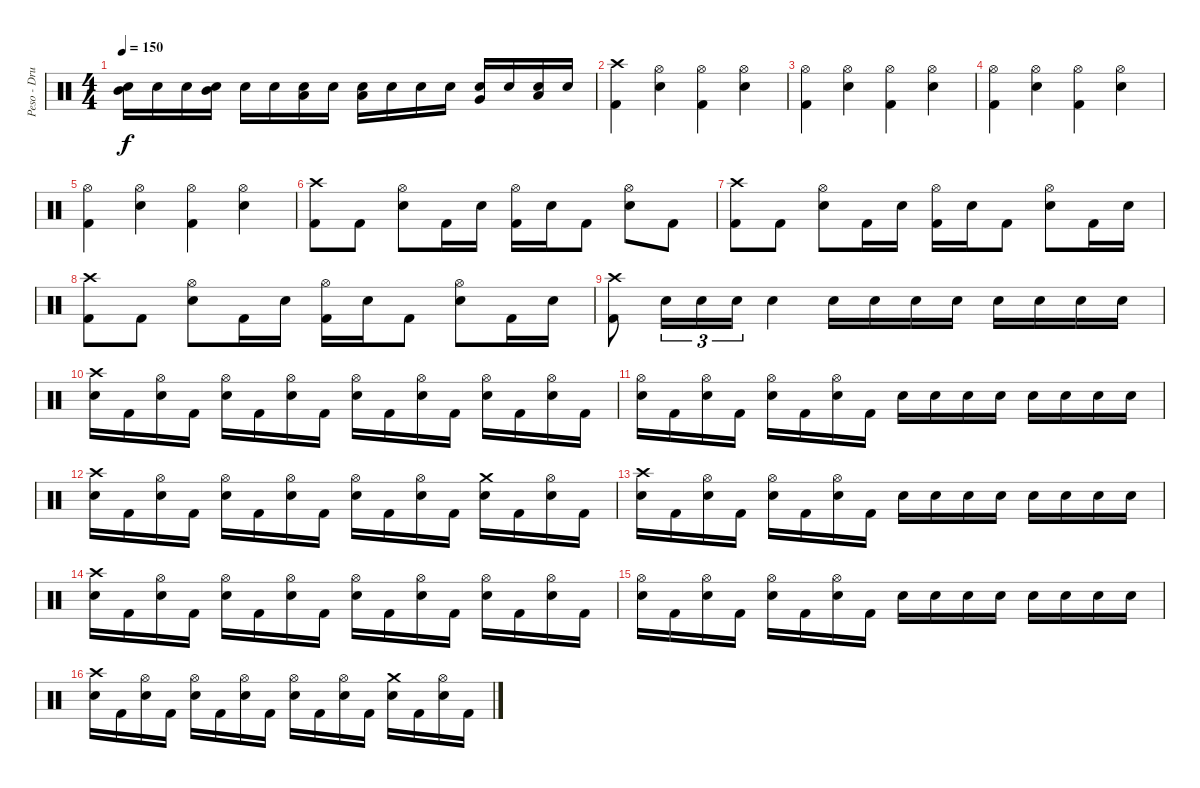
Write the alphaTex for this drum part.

\track ("Peso - Drums" "Peso - Dru") {instrument percussion}
\staff {score}
\articulation defaults
\ts (4 4)
\tempo 150
\clef neutral
\ks c
("Mid Tom (hit)" "Electric Snare (hit)").16{dy f} "Electric Snare (hit)".16 "Electric Snare (hit)".16 ("Mid Tom (hit)" "Electric Snare (hit)").16 "Electric Snare (hit)".16 "Electric Snare (hit)".16 ("Low Tom (hit)" "Electric Snare (hit)").16 "Electric Snare (hit)".16 ("Low Tom (hit)" "Electric Snare (hit)").16 "Electric Snare (hit)".16 "Electric Snare (hit)".16 "Electric Snare (hit)".16 ("Very Low Tom (hit)" "Electric Snare (hit)").16 "Electric Snare (hit)".16 ("Electric Snare (hit)" "Low Floor Tom (hit)").16 "Electric Snare (hit)".16 |
("Crash high (hit)" "Kick (hit) 2").4 ("Hi-Hat (open)" "Electric Snare (hit)").4 ("Hi-Hat (open)" "Kick (hit) 2").4 ("Hi-Hat (open)" "Electric Snare (hit)").4 |
("Hi-Hat (open)" "Kick (hit) 2").4 ("Hi-Hat (open)" "Electric Snare (hit)").4 ("Hi-Hat (open)" "Kick (hit) 2").4 ("Hi-Hat (open)" "Electric Snare (hit)").4 |
("Hi-Hat (open)" "Kick (hit) 2").4 ("Hi-Hat (open)" "Electric Snare (hit)").4 ("Hi-Hat (open)" "Kick (hit) 2").4 ("Hi-Hat (open)" "Electric Snare (hit)").4 |
("Hi-Hat (open)" "Kick (hit) 2").4 ("Hi-Hat (open)" "Electric Snare (hit)").4 ("Hi-Hat (open)" "Kick (hit) 2").4 ("Hi-Hat (open)" "Electric Snare (hit)").4 |
("Crash high (hit)" "Kick (hit) 2").8 "Kick (hit) 2".8 ("Hi-Hat (open)" "Electric Snare (hit)").8 "Kick (hit) 2".16 "Electric Snare (hit)".16 ("Hi-Hat (open)" "Kick (hit) 2").16 "Electric Snare (hit)".16 "Kick (hit) 2".8 ("Hi-Hat (open)" "Electric Snare (hit)").8 "Kick (hit) 2".8 |
("Crash high (hit)" "Kick (hit) 2").8 "Kick (hit) 2".8 ("Hi-Hat (open)" "Electric Snare (hit)").8 "Kick (hit) 2".16 "Electric Snare (hit)".16 ("Hi-Hat (open)" "Kick (hit) 2").16 "Electric Snare (hit)".16 "Kick (hit) 2".8 ("Hi-Hat (open)" "Electric Snare (hit)").8 "Kick (hit) 2".16 "Electric Snare (hit)".16 |
("Crash high (hit)" "Kick (hit) 2").8 "Kick (hit) 2".8 ("Hi-Hat (open)" "Electric Snare (hit)").8 "Kick (hit) 2".16 "Electric Snare (hit)".16 ("Hi-Hat (open)" "Kick (hit) 2").16 "Electric Snare (hit)".16 "Kick (hit) 2".8 ("Hi-Hat (open)" "Electric Snare (hit)").8 "Kick (hit) 2".16 "Electric Snare (hit)".16 |
("Crash high (hit)" "Kick (hit) 2").8 "Electric Snare (hit)".16{tu (3 2)} "Electric Snare (hit)".16{tu (3 2)} "Electric Snare (hit)".16{tu (3 2)} "Electric Snare (hit)".4 "Electric Snare (hit)".16 "Electric Snare (hit)".16 "Electric Snare (hit)".16 "Electric Snare (hit)".16 "Electric Snare (hit)".16 "Electric Snare (hit)".16 "Electric Snare (hit)".16 "Electric Snare (hit)".16 |
("Crash high (hit)" "Electric Snare (hit)").16 "Kick (hit) 2".16 ("Hi-Hat (open)" "Electric Snare (hit)").16 "Kick (hit) 2".16 ("Hi-Hat (open)" "Electric Snare (hit)").16 "Kick (hit) 2".16 ("Hi-Hat (open)" "Electric Snare (hit)").16 "Kick (hit) 2".16 ("Hi-Hat (open)" "Electric Snare (hit)").16 "Kick (hit) 2".16 ("Hi-Hat (open)" "Electric Snare (hit)").16 "Kick (hit) 2".16 ("Hi-Hat (open)" "Electric Snare (hit)").16 "Kick (hit) 2".16 ("Hi-Hat (open)" "Electric Snare (hit)").16 "Kick (hit) 2".16 |
("Hi-Hat (open)" "Electric Snare (hit)").16 "Kick (hit) 2".16 ("Hi-Hat (open)" "Electric Snare (hit)").16 "Kick (hit) 2".16 ("Hi-Hat (open)" "Electric Snare (hit)").16 "Kick (hit) 2".16 ("Hi-Hat (open)" "Electric Snare (hit)").16 "Kick (hit) 2".16 "Electric Snare (hit)".16 "Electric Snare (hit)".16 "Electric Snare (hit)".16 "Electric Snare (hit)".16 "Electric Snare (hit)".16 "Electric Snare (hit)".16 "Electric Snare (hit)".16 "Electric Snare (hit)".16 |
("Crash high (hit)" "Electric Snare (hit)").16 "Kick (hit) 2".16 ("Hi-Hat (open)" "Electric Snare (hit)").16 "Kick (hit) 2".16 ("Hi-Hat (open)" "Electric Snare (hit)").16 "Kick (hit) 2".16 ("Hi-Hat (open)" "Electric Snare (hit)").16 "Kick (hit) 2".16 ("Hi-Hat (open)" "Electric Snare (hit)").16 "Kick (hit) 2".16 ("Hi-Hat (open)" "Electric Snare (hit)").16 "Kick (hit) 2".16 ("Crash medium (hit)" "Electric Snare (hit)").16 "Kick (hit) 2".16 ("Hi-Hat (open)" "Electric Snare (hit)").16 "Kick (hit) 2".16 |
("Crash high (hit)" "Electric Snare (hit)").16 "Kick (hit) 2".16 ("Hi-Hat (open)" "Electric Snare (hit)").16 "Kick (hit) 2".16 ("Hi-Hat (open)" "Electric Snare (hit)").16 "Kick (hit) 2".16 ("Hi-Hat (open)" "Electric Snare (hit)").16 "Kick (hit) 2".16 "Electric Snare (hit)".16 "Electric Snare (hit)".16 "Electric Snare (hit)".16 "Electric Snare (hit)".16 "Electric Snare (hit)".16 "Electric Snare (hit)".16 "Electric Snare (hit)".16 "Electric Snare (hit)".16 |
("Crash high (hit)" "Electric Snare (hit)").16 "Kick (hit) 2".16 ("Hi-Hat (open)" "Electric Snare (hit)").16 "Kick (hit) 2".16 ("Hi-Hat (open)" "Electric Snare (hit)").16 "Kick (hit) 2".16 ("Hi-Hat (open)" "Electric Snare (hit)").16 "Kick (hit) 2".16 ("Hi-Hat (open)" "Electric Snare (hit)").16 "Kick (hit) 2".16 ("Hi-Hat (open)" "Electric Snare (hit)").16 "Kick (hit) 2".16 ("Hi-Hat (open)" "Electric Snare (hit)").16 "Kick (hit) 2".16 ("Hi-Hat (open)" "Electric Snare (hit)").16 "Kick (hit) 2".16 |
("Hi-Hat (open)" "Electric Snare (hit)").16 "Kick (hit) 2".16 ("Hi-Hat (open)" "Electric Snare (hit)").16 "Kick (hit) 2".16 ("Hi-Hat (open)" "Electric Snare (hit)").16 "Kick (hit) 2".16 ("Hi-Hat (open)" "Electric Snare (hit)").16 "Kick (hit) 2".16 "Electric Snare (hit)".16 "Electric Snare (hit)".16 "Electric Snare (hit)".16 "Electric Snare (hit)".16 "Electric Snare (hit)".16 "Electric Snare (hit)".16 "Electric Snare (hit)".16 "Electric Snare (hit)".16 |
("Crash high (hit)" "Electric Snare (hit)").16 "Kick (hit) 2".16 ("Hi-Hat (open)" "Electric Snare (hit)").16 "Kick (hit) 2".16 ("Hi-Hat (open)" "Electric Snare (hit)").16 "Kick (hit) 2".16 ("Hi-Hat (open)" "Electric Snare (hit)").16 "Kick (hit) 2".16 ("Hi-Hat (open)" "Electric Snare (hit)").16 "Kick (hit) 2".16 ("Hi-Hat (open)" "Electric Snare (hit)").16 "Kick (hit) 2".16 ("Crash medium (hit)" "Electric Snare (hit)").16 "Kick (hit) 2".16 ("Hi-Hat (open)" "Electric Snare (hit)").16 "Kick (hit) 2".16
